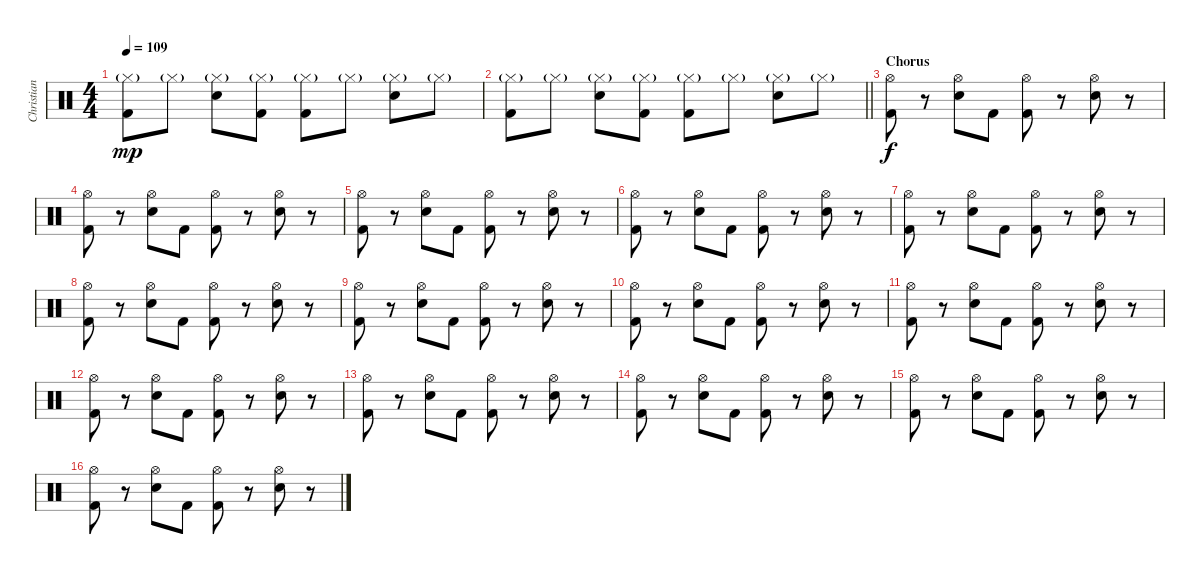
\track ("Christian Eigner - Drums" "Christian ") {instrument percussion}
\staff {score}
\articulation defaults
\ts (4 4)
\tempo 109
\clef neutral
\ks c
("Hi-Hat (closed)"{g} "Kick (hit) 2").8{dy mp} "Hi-Hat (closed)"{g}.8 ("Hi-Hat (closed)"{g} "Snare (hit) 2").8 ("Hi-Hat (closed)"{g} "Kick (hit) 2").8 ("Hi-Hat (closed)"{g} "Kick (hit) 2").8 "Hi-Hat (closed)"{g}.8 ("Hi-Hat (closed)"{g} "Snare (hit) 2").8 "Hi-Hat (closed)"{g}.8 |
\barLineRight lightlight
("Hi-Hat (closed)"{g} "Kick (hit) 2").8 "Hi-Hat (closed)"{g}.8 ("Hi-Hat (closed)"{g} "Snare (hit) 2").8 ("Hi-Hat (closed)"{g} "Kick (hit) 2").8 ("Hi-Hat (closed)"{g} "Kick (hit) 2").8 "Hi-Hat (closed)"{g}.8 ("Hi-Hat (closed)"{g} "Snare (hit) 2").8 "Hi-Hat (closed)"{g}.8 |
\section ("" "Chorus")
("Hi-Hat (open)" "Kick (hit) 2").8{dy f} r.8 ("Hi-Hat (open)" "Snare (hit) 2").8 "Kick (hit) 2".8 ("Hi-Hat (open)" "Kick (hit) 2").8 r.8 ("Hi-Hat (open)" "Snare (hit) 2").8 r.8 |
("Hi-Hat (open)" "Kick (hit) 2").8 r.8 ("Hi-Hat (open)" "Snare (hit) 2").8 "Kick (hit) 2".8 ("Hi-Hat (open)" "Kick (hit) 2").8 r.8 ("Hi-Hat (open)" "Snare (hit) 2").8 r.8 |
("Hi-Hat (open)" "Kick (hit) 2").8 r.8 ("Hi-Hat (open)" "Snare (hit) 2").8 "Kick (hit) 2".8 ("Hi-Hat (open)" "Kick (hit) 2").8 r.8 ("Hi-Hat (open)" "Snare (hit) 2").8 r.8 |
("Hi-Hat (open)" "Kick (hit) 2").8 r.8 ("Hi-Hat (open)" "Snare (hit) 2").8 "Kick (hit) 2".8 ("Hi-Hat (open)" "Kick (hit) 2").8 r.8 ("Hi-Hat (open)" "Snare (hit) 2").8 r.8 |
("Hi-Hat (open)" "Kick (hit) 2").8 r.8 ("Hi-Hat (open)" "Snare (hit) 2").8 "Kick (hit) 2".8 ("Hi-Hat (open)" "Kick (hit) 2").8 r.8 ("Hi-Hat (open)" "Snare (hit) 2").8 r.8 |
("Hi-Hat (open)" "Kick (hit) 2").8 r.8 ("Hi-Hat (open)" "Snare (hit) 2").8 "Kick (hit) 2".8 ("Hi-Hat (open)" "Kick (hit) 2").8 r.8 ("Hi-Hat (open)" "Snare (hit) 2").8 r.8 |
("Hi-Hat (open)" "Kick (hit) 2").8 r.8 ("Hi-Hat (open)" "Snare (hit) 2").8 "Kick (hit) 2".8 ("Hi-Hat (open)" "Kick (hit) 2").8 r.8 ("Hi-Hat (open)" "Snare (hit) 2").8 r.8 |
("Hi-Hat (open)" "Kick (hit) 2").8 r.8 ("Hi-Hat (open)" "Snare (hit) 2").8 "Kick (hit) 2".8 ("Hi-Hat (open)" "Kick (hit) 2").8 r.8 ("Hi-Hat (open)" "Snare (hit) 2").8 r.8 |
("Hi-Hat (open)" "Kick (hit) 2").8 r.8 ("Hi-Hat (open)" "Snare (hit) 2").8 "Kick (hit) 2".8 ("Hi-Hat (open)" "Kick (hit) 2").8 r.8 ("Hi-Hat (open)" "Snare (hit) 2").8 r.8 |
("Hi-Hat (open)" "Kick (hit) 2").8 r.8 ("Hi-Hat (open)" "Snare (hit) 2").8 "Kick (hit) 2".8 ("Hi-Hat (open)" "Kick (hit) 2").8 r.8 ("Hi-Hat (open)" "Snare (hit) 2").8 r.8 |
("Hi-Hat (open)" "Kick (hit) 2").8 r.8 ("Hi-Hat (open)" "Snare (hit) 2").8 "Kick (hit) 2".8 ("Hi-Hat (open)" "Kick (hit) 2").8 r.8 ("Hi-Hat (open)" "Snare (hit) 2").8 r.8 |
("Hi-Hat (open)" "Kick (hit) 2").8 r.8 ("Hi-Hat (open)" "Snare (hit) 2").8 "Kick (hit) 2".8 ("Hi-Hat (open)" "Kick (hit) 2").8 r.8 ("Hi-Hat (open)" "Snare (hit) 2").8 r.8 |
("Hi-Hat (open)" "Kick (hit) 2").8 r.8 ("Hi-Hat (open)" "Snare (hit) 2").8 "Kick (hit) 2".8 ("Hi-Hat (open)" "Kick (hit) 2").8 r.8 ("Hi-Hat (open)" "Snare (hit) 2").8 r.8 |
("Hi-Hat (open)" "Kick (hit) 2").8 r.8 ("Hi-Hat (open)" "Snare (hit) 2").8 "Kick (hit) 2".8 ("Hi-Hat (open)" "Kick (hit) 2").8 r.8 ("Hi-Hat (open)" "Snare (hit) 2").8 r.8
